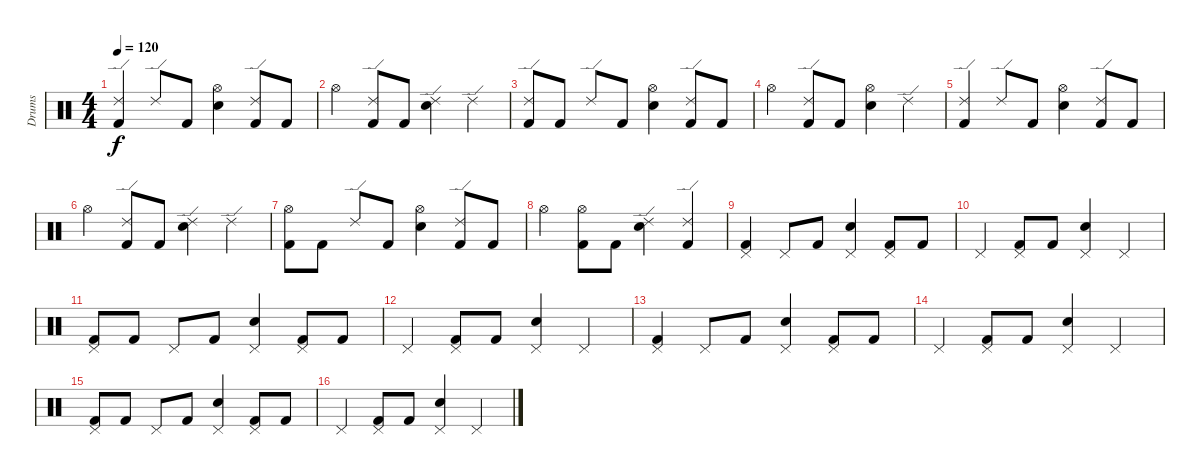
\track ("Drums" "Drums") {instrument percussion}
\staff {score}
\articulation defaults
\ts (4 4)
\tempo 120
\clef neutral
\ks c
("Ride (edge) 2" "Kick (hit) 2").4{dy f} "Ride (edge) 2".8 "Kick (hit) 2".8 ("Hi-Hat (open)" "Snare (hit) 2").4 ("Ride (edge) 2" "Kick (hit) 2").8 "Kick (hit) 2".8 |
"Hi-Hat (open)".4 ("Ride (edge) 2" "Kick (hit) 2").8 "Kick (hit) 2".8 ("Ride (edge) 2" "Snare (hit) 2").4 "Ride (edge) 2".4 |
("Ride (edge) 2" "Kick (hit) 2").8 "Kick (hit) 2".8 "Ride (edge) 2".8 "Kick (hit) 2".8 ("Hi-Hat (open)" "Snare (hit) 2").4 ("Ride (edge) 2" "Kick (hit) 2").8 "Kick (hit) 2".8 |
"Hi-Hat (open)".4 ("Ride (edge) 2" "Kick (hit) 2").8 "Kick (hit) 2".8 ("Hi-Hat (open)" "Snare (hit) 2").4 "Ride (edge) 2".4 |
("Ride (edge) 2" "Kick (hit) 2").4 "Ride (edge) 2".8 "Kick (hit) 2".8 ("Hi-Hat (open)" "Snare (hit) 2").4 ("Ride (edge) 2" "Kick (hit) 2").8 "Kick (hit) 2".8 |
"Hi-Hat (open)".4 ("Ride (edge) 2" "Kick (hit) 2").8 "Kick (hit) 2".8 ("Ride (edge) 2" "Snare (hit) 2").4 "Ride (edge) 2".4 |
("Hi-Hat (open)" "Kick (hit) 2").8 "Kick (hit) 2".8 "Ride (edge) 2".8 "Kick (hit) 2".8 ("Hi-Hat (open)" "Snare (hit) 2").4 ("Ride (edge) 2" "Kick (hit) 2").8 "Kick (hit) 2".8 |
"Hi-Hat (open)".4 ("Hi-Hat (open)" "Kick (hit) 2").8 "Kick (hit) 2".8 ("Ride (edge) 2" "Snare (hit) 2").4 ("Ride (edge) 2" "Kick (hit) 2").4 |
("Pedal Hi-Hat (hit)" "Kick (hit) 2").4 "Pedal Hi-Hat (hit)".8 "Kick (hit) 2".8 ("Pedal Hi-Hat (hit)" "Snare (hit) 2").4 ("Pedal Hi-Hat (hit)" "Kick (hit) 2").8 "Kick (hit) 2".8 |
"Pedal Hi-Hat (hit)".4 ("Pedal Hi-Hat (hit)" "Kick (hit) 2").8 "Kick (hit) 2".8 ("Pedal Hi-Hat (hit)" "Snare (hit) 2").4 "Pedal Hi-Hat (hit)".4 |
("Pedal Hi-Hat (hit)" "Kick (hit) 2").8 "Kick (hit) 2".8 "Pedal Hi-Hat (hit)".8 "Kick (hit) 2".8 ("Pedal Hi-Hat (hit)" "Snare (hit) 2").4 ("Pedal Hi-Hat (hit)" "Kick (hit) 2").8 "Kick (hit) 2".8 |
"Pedal Hi-Hat (hit)".4 ("Pedal Hi-Hat (hit)" "Kick (hit) 2").8 "Kick (hit) 2".8 ("Pedal Hi-Hat (hit)" "Snare (hit) 2").4 "Pedal Hi-Hat (hit)".4 |
("Pedal Hi-Hat (hit)" "Kick (hit) 2").4 "Pedal Hi-Hat (hit)".8 "Kick (hit) 2".8 ("Pedal Hi-Hat (hit)" "Snare (hit) 2").4 ("Pedal Hi-Hat (hit)" "Kick (hit) 2").8 "Kick (hit) 2".8 |
"Pedal Hi-Hat (hit)".4 ("Pedal Hi-Hat (hit)" "Kick (hit) 2").8 "Kick (hit) 2".8 ("Pedal Hi-Hat (hit)" "Snare (hit) 2").4 "Pedal Hi-Hat (hit)".4 |
("Pedal Hi-Hat (hit)" "Kick (hit) 2").8 "Kick (hit) 2".8 "Pedal Hi-Hat (hit)".8 "Kick (hit) 2".8 ("Pedal Hi-Hat (hit)" "Snare (hit) 2").4 ("Pedal Hi-Hat (hit)" "Kick (hit) 2").8 "Kick (hit) 2".8 |
"Pedal Hi-Hat (hit)".4 ("Pedal Hi-Hat (hit)" "Kick (hit) 2").8 "Kick (hit) 2".8 ("Pedal Hi-Hat (hit)" "Snare (hit) 2").4 "Pedal Hi-Hat (hit)".4
